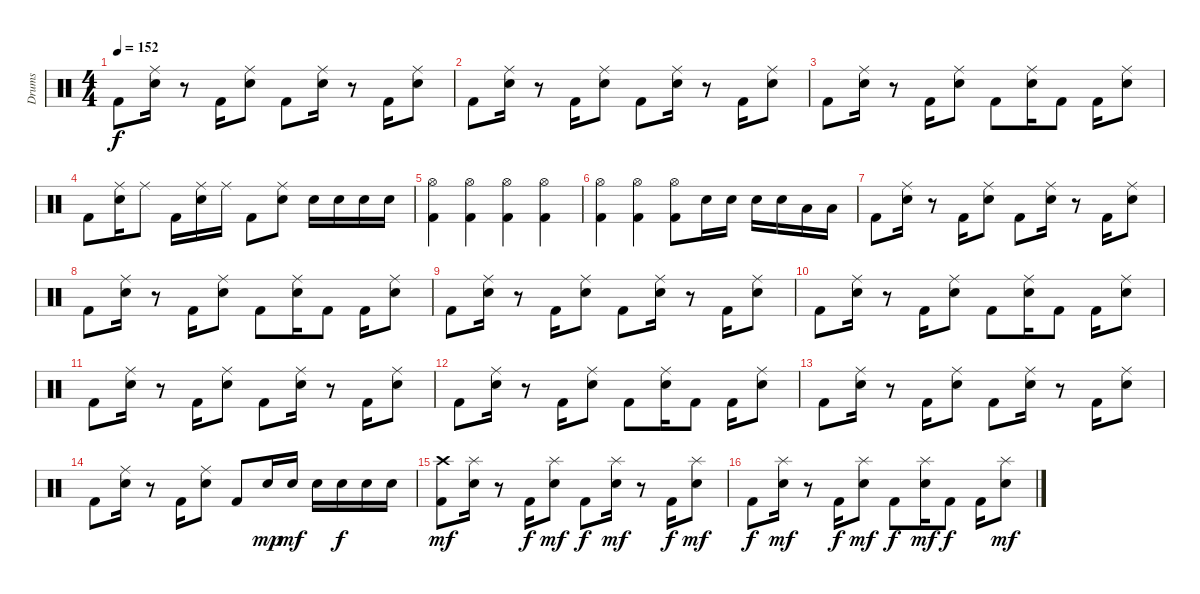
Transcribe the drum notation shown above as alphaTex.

\track ("Drums" "Drums") {instrument percussion}
\staff {score}
\articulation defaults
\ts (4 4)
\tempo 152
\clef neutral
\ks c "Kick (hit) 2".8{dy f}
("Ride (middle)" "Snare (hit) 2").16 r.8 "Kick (hit) 2".16 ("Ride (middle)" "Snare (hit) 2").8 "Kick (hit) 2".8 ("Ride (middle)" "Snare (hit) 2").16 r.8 "Kick (hit) 2".16 ("Ride (middle)" "Snare (hit) 2").8 |
"Kick (hit) 2".8 ("Ride (middle)" "Snare (hit) 2").16 r.8 "Kick (hit) 2".16 ("Ride (middle)" "Snare (hit) 2").8 "Kick (hit) 2".8 ("Ride (middle)" "Snare (hit) 2").16 r.8 "Kick (hit) 2".16 ("Ride (middle)" "Snare (hit) 2").8 |
"Kick (hit) 2".8 ("Ride (middle)" "Snare (hit) 2").16 r.8 "Kick (hit) 2".16 ("Ride (middle)" "Snare (hit) 2").8 "Kick (hit) 2".8 ("Ride (middle)" "Snare (hit) 2").16 "Kick (hit) 2".8 "Kick (hit) 2".16 ("Ride (middle)" "Snare (hit) 2").8 |
"Kick (hit) 2".8 ("Ride (middle)" "Snare (hit) 2").16 "Ride (middle)".8 "Kick (hit) 2".16 ("Ride (middle)" "Snare (hit) 2").16 "Ride (middle)".16 "Kick (hit) 2".8 ("Ride (middle)" "Snare (hit) 2").8 "Snare (hit) 2".16 "Snare (hit) 2".16 "Snare (hit) 2".16 "Snare (hit) 2".16 |
("Hi-Hat (open)" "Kick (hit) 2").4 ("Hi-Hat (open)" "Kick (hit) 2").4 ("Hi-Hat (open)" "Kick (hit) 2").4 ("Hi-Hat (open)" "Kick (hit) 2").4 |
("Hi-Hat (open)" "Kick (hit) 2").4 ("Hi-Hat (open)" "Kick (hit) 2").4 ("Hi-Hat (open)" "Kick (hit) 2").8 "Snare (hit) 2".16 "Snare (hit) 2".16 "Snare (hit) 2".16 "Snare (hit) 2".16 "Low Tom (hit)".16 "Low Tom (hit)".16 |
"Kick (hit) 2".8 ("Ride (middle)" "Snare (hit) 2").16 r.8 "Kick (hit) 2".16 ("Ride (middle)" "Snare (hit) 2").8 "Kick (hit) 2".8 ("Ride (middle)" "Snare (hit) 2").16 r.8 "Kick (hit) 2".16 ("Ride (middle)" "Snare (hit) 2").8 |
"Kick (hit) 2".8 ("Ride (middle)" "Snare (hit) 2").16 r.8 "Kick (hit) 2".16 ("Ride (middle)" "Snare (hit) 2").8 "Kick (hit) 2".8 ("Ride (middle)" "Snare (hit) 2").16 "Kick (hit) 2".8 "Kick (hit) 2".16 ("Ride (middle)" "Snare (hit) 2").8 |
"Kick (hit) 2".8 ("Ride (middle)" "Snare (hit) 2").16 r.8 "Kick (hit) 2".16 ("Ride (middle)" "Snare (hit) 2").8 "Kick (hit) 2".8 ("Ride (middle)" "Snare (hit) 2").16 r.8 "Kick (hit) 2".16 ("Ride (middle)" "Snare (hit) 2").8 |
"Kick (hit) 2".8 ("Ride (middle)" "Snare (hit) 2").16 r.8 "Kick (hit) 2".16 ("Ride (middle)" "Snare (hit) 2").8 "Kick (hit) 2".8 ("Ride (middle)" "Snare (hit) 2").16 "Kick (hit) 2".8 "Kick (hit) 2".16 ("Ride (middle)" "Snare (hit) 2").8 |
"Kick (hit) 2".8 ("Ride (middle)" "Snare (hit) 2").16 r.8 "Kick (hit) 2".16 ("Ride (middle)" "Snare (hit) 2").8 "Kick (hit) 2".8 ("Ride (middle)" "Snare (hit) 2").16 r.8 "Kick (hit) 2".16 ("Ride (middle)" "Snare (hit) 2").8 |
"Kick (hit) 2".8 ("Ride (middle)" "Snare (hit) 2").16 r.8 "Kick (hit) 2".16 ("Ride (middle)" "Snare (hit) 2").8 "Kick (hit) 2".8 ("Ride (middle)" "Snare (hit) 2").16 "Kick (hit) 2".8 "Kick (hit) 2".16 ("Ride (middle)" "Snare (hit) 2").8 |
"Kick (hit) 2".8 ("Ride (middle)" "Snare (hit) 2").16 r.8 "Kick (hit) 2".16 ("Ride (middle)" "Snare (hit) 2").8 "Kick (hit) 2".8 ("Ride (middle)" "Snare (hit) 2").16 r.8 "Kick (hit) 2".16 ("Ride (middle)" "Snare (hit) 2").8 |
"Kick (hit) 2".8 ("Ride (middle)" "Snare (hit) 2").16 r.8 "Kick (hit) 2".16 ("Ride (middle)" "Snare (hit) 2").8 "Kick (hit) 2".8 "Snare (hit) 2".16{dy mp} "Snare (hit) 2".16{dy mf} "Snare (hit) 2".16 "Snare (hit) 2".16{dy f} "Snare (hit) 2".16 "Snare (hit) 2".16 |
("Crash high (hit)" "Kick (hit) 2").8{dy mf} ("Splash (hit)" "Snare (hit) 2").16 r.8 "Kick (hit) 2".16{dy f} ("Splash (hit)" "Snare (hit) 2").8{dy mf} "Kick (hit) 2".8{dy f} ("Splash (hit)" "Snare (hit) 2").16{dy mf} r.8 "Kick (hit) 2".16{dy f} ("Splash (hit)" "Snare (hit) 2").8{dy mf} |
"Kick (hit) 2".8{dy f} ("Splash (hit)" "Snare (hit) 2").16{dy mf} r.8 "Kick (hit) 2".16{dy f} ("Splash (hit)" "Snare (hit) 2").8{dy mf} "Kick (hit) 2".8{dy f} ("Splash (hit)" "Snare (hit) 2").16{dy mf} "Kick (hit) 2".8{dy f} "Kick (hit) 2".16 ("Splash (hit)" "Snare (hit) 2").8{dy mf}
